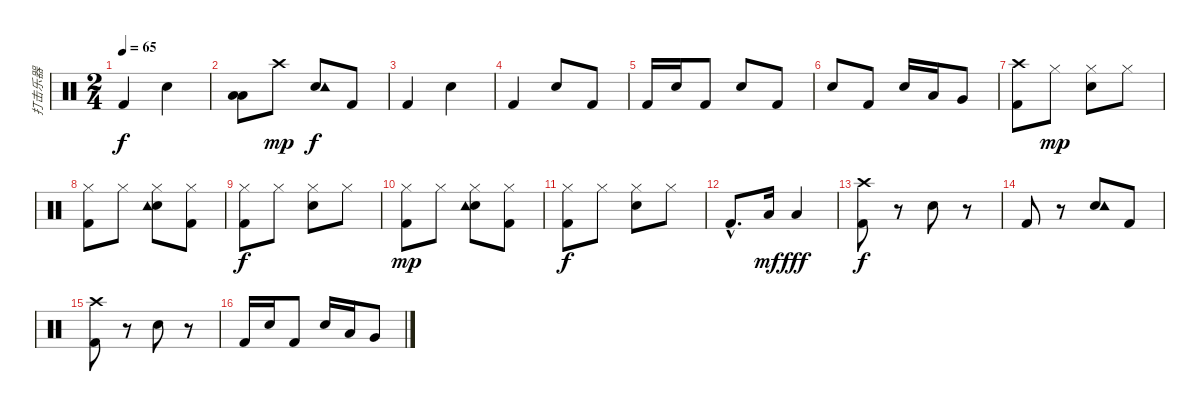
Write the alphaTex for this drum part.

\track ("打击乐器" "打击乐器") {instrument percussion}
\staff {score}
\articulation defaults
\ts (2 4)
\tempo 65
\clef neutral
\ks c "Kick (hit) 2".4{dy f} "Electric Snare (hit)".4
|
("Low Tom (hit)" "Low Tom (hit)").8{bd 120} "Crash high (hit)".8{dy mp} ("Electric Snare (hit)" "Tambourine (hit)").8{dy f} "Kick (hit) 2".8 |
"Kick (hit) 2".4 "Electric Snare (hit)".4 |
"Kick (hit) 2".4 "Electric Snare (hit)".8 "Kick (hit) 2".8 |
"Kick (hit) 2".16 "Electric Snare (hit)".16 "Kick (hit) 2".8 "Electric Snare (hit)".8 "Kick (hit) 2".8 |
"Electric Snare (hit)".8 "Kick (hit) 2".8 "Electric Snare (hit)".16 "Low Tom (hit)".16 "Very Low Tom (hit)".8 |
("Crash high (hit)" "Kick (hit) 2").8 "Hi-Hat (closed)".8{dy mp} ("Electric Snare (hit)" "Hi-Hat (closed)").8 "Hi-Hat (closed)".8 |
("Kick (hit) 2" "Hi-Hat (closed)").8 "Hi-Hat (closed)".8 ("Electric Snare (hit)" "Tambourine (hit)" "Hi-Hat (closed)").8 ("Kick (hit) 2" "Hi-Hat (closed)").8 |
("Kick (hit) 2" "Hi-Hat (closed)").8{dy f} "Hi-Hat (closed)".8 ("Electric Snare (hit)" "Hi-Hat (closed)").8 "Hi-Hat (closed)".8 |
("Kick (hit) 2" "Hi-Hat (closed)").8{dy mp} "Hi-Hat (closed)".8 ("Electric Snare (hit)" "Tambourine (hit)" "Hi-Hat (closed)").8 ("Kick (hit) 2" "Hi-Hat (closed)").8 |
("Kick (hit) 2" "Hi-Hat (closed)").8{dy f} "Hi-Hat (closed)".8 ("Electric Snare (hit)" "Hi-Hat (closed)").8 "Hi-Hat (closed)".8 |
"Kick (hit) 2"{hac}.8{d} "Low Tom (hit)".16{dy mf} "Low Tom (hit)".4{dy fff} |
("Crash high (hit)" "Kick (hit) 2").8{dy f} r.8 "Electric Snare (hit)".8 r.8 |
"Kick (hit) 2".8 r.8 ("Electric Snare (hit)" "Tambourine (hit)").8 "Kick (hit) 2".8 |
("Crash high (hit)" "Kick (hit) 2").8 r.8 "Electric Snare (hit)".8 r.8 |
"Kick (hit) 2".16 "Electric Snare (hit)".16 "Kick (hit) 2".8 "Electric Snare (hit)".16 "Low Tom (hit)".16 "Very Low Tom (hit)".8
